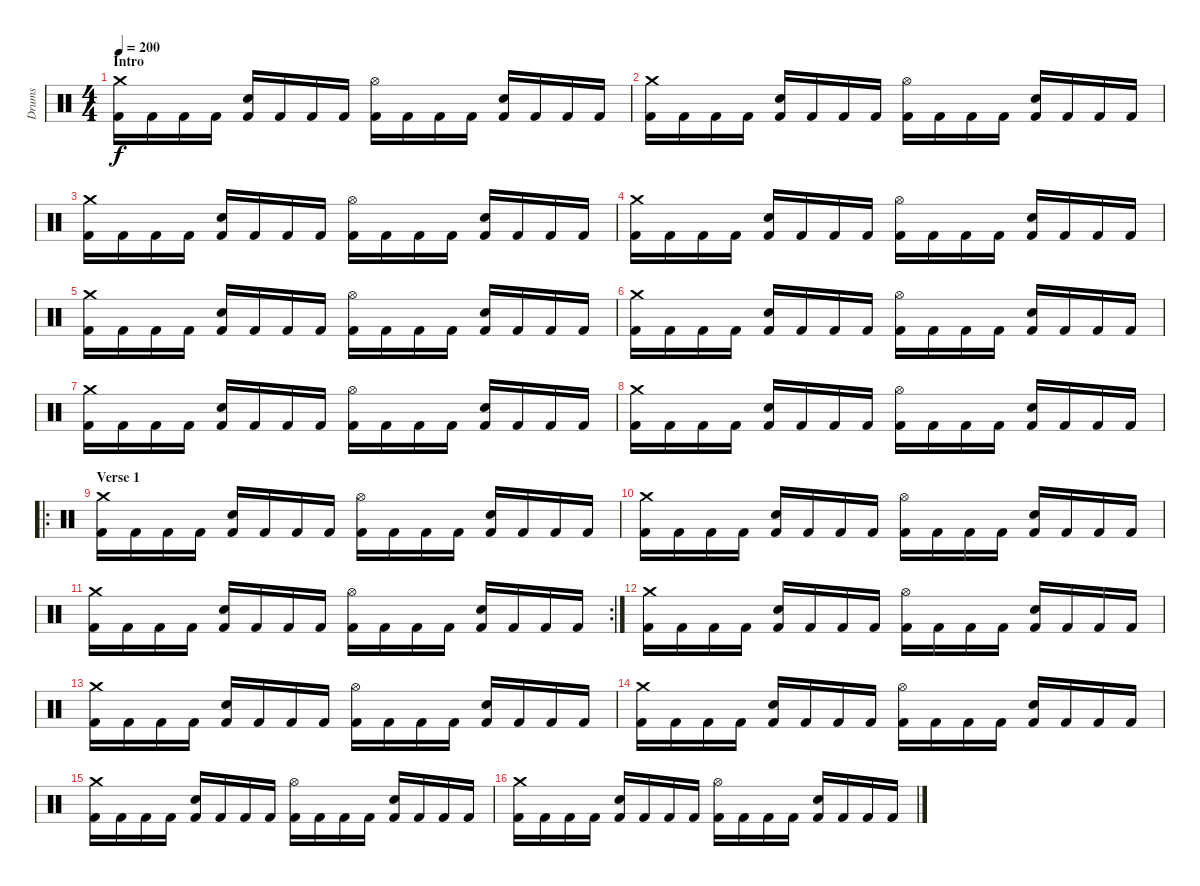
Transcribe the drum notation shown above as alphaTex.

\track ("Drums" "Drums") {instrument percussion}
\staff {score}
\articulation defaults
\ts (4 4)
\section ("" "Intro")
\tempo 200
\clef neutral
\ks c
("Kick (hit) 2" "Crash medium (hit)").16{dy f} "Kick (hit) 2".16 "Kick (hit) 2".16 "Kick (hit) 2".16 ("Kick (hit) 2" "Snare (hit) 2").16 "Kick (hit) 2".16 "Kick (hit) 2".16 "Kick (hit) 2".16 ("Kick (hit) 2" "Hi-Hat (open)").16 "Kick (hit) 2".16 "Kick (hit) 2".16 "Kick (hit) 2".16 ("Kick (hit) 2" "Snare (hit) 2").16 "Kick (hit) 2".16 "Kick (hit) 2".16 "Kick (hit) 2".16 |
("Kick (hit) 2" "Crash medium (hit)").16 "Kick (hit) 2".16 "Kick (hit) 2".16 "Kick (hit) 2".16 ("Kick (hit) 2" "Snare (hit) 2").16 "Kick (hit) 2".16 "Kick (hit) 2".16 "Kick (hit) 2".16 ("Kick (hit) 2" "Hi-Hat (open)").16 "Kick (hit) 2".16 "Kick (hit) 2".16 "Kick (hit) 2".16 ("Kick (hit) 2" "Snare (hit) 2").16 "Kick (hit) 2".16 "Kick (hit) 2".16 "Kick (hit) 2".16 |
("Kick (hit) 2" "Crash medium (hit)").16 "Kick (hit) 2".16 "Kick (hit) 2".16 "Kick (hit) 2".16 ("Kick (hit) 2" "Snare (hit) 2").16 "Kick (hit) 2".16 "Kick (hit) 2".16 "Kick (hit) 2".16 ("Kick (hit) 2" "Hi-Hat (open)").16 "Kick (hit) 2".16 "Kick (hit) 2".16 "Kick (hit) 2".16 ("Kick (hit) 2" "Snare (hit) 2").16 "Kick (hit) 2".16 "Kick (hit) 2".16 "Kick (hit) 2".16 |
("Kick (hit) 2" "Crash medium (hit)").16 "Kick (hit) 2".16 "Kick (hit) 2".16 "Kick (hit) 2".16 ("Kick (hit) 2" "Snare (hit) 2").16 "Kick (hit) 2".16 "Kick (hit) 2".16 "Kick (hit) 2".16 ("Kick (hit) 2" "Hi-Hat (open)").16 "Kick (hit) 2".16 "Kick (hit) 2".16 "Kick (hit) 2".16 ("Kick (hit) 2" "Snare (hit) 2").16 "Kick (hit) 2".16 "Kick (hit) 2".16 "Kick (hit) 2".16 |
("Kick (hit) 2" "Crash medium (hit)").16 "Kick (hit) 2".16 "Kick (hit) 2".16 "Kick (hit) 2".16 ("Kick (hit) 2" "Snare (hit) 2").16 "Kick (hit) 2".16 "Kick (hit) 2".16 "Kick (hit) 2".16 ("Kick (hit) 2" "Hi-Hat (open)").16 "Kick (hit) 2".16 "Kick (hit) 2".16 "Kick (hit) 2".16 ("Kick (hit) 2" "Snare (hit) 2").16 "Kick (hit) 2".16 "Kick (hit) 2".16 "Kick (hit) 2".16 |
("Kick (hit) 2" "Crash medium (hit)").16 "Kick (hit) 2".16 "Kick (hit) 2".16 "Kick (hit) 2".16 ("Kick (hit) 2" "Snare (hit) 2").16 "Kick (hit) 2".16 "Kick (hit) 2".16 "Kick (hit) 2".16 ("Kick (hit) 2" "Hi-Hat (open)").16 "Kick (hit) 2".16 "Kick (hit) 2".16 "Kick (hit) 2".16 ("Kick (hit) 2" "Snare (hit) 2").16 "Kick (hit) 2".16 "Kick (hit) 2".16 "Kick (hit) 2".16 |
("Kick (hit) 2" "Crash medium (hit)").16 "Kick (hit) 2".16 "Kick (hit) 2".16 "Kick (hit) 2".16 ("Kick (hit) 2" "Snare (hit) 2").16 "Kick (hit) 2".16 "Kick (hit) 2".16 "Kick (hit) 2".16 ("Kick (hit) 2" "Hi-Hat (open)").16 "Kick (hit) 2".16 "Kick (hit) 2".16 "Kick (hit) 2".16 ("Kick (hit) 2" "Snare (hit) 2").16 "Kick (hit) 2".16 "Kick (hit) 2".16 "Kick (hit) 2".16 |
("Kick (hit) 2" "Crash medium (hit)").16 "Kick (hit) 2".16 "Kick (hit) 2".16 "Kick (hit) 2".16 ("Kick (hit) 2" "Snare (hit) 2").16 "Kick (hit) 2".16 "Kick (hit) 2".16 "Kick (hit) 2".16 ("Kick (hit) 2" "Hi-Hat (open)").16 "Kick (hit) 2".16 "Kick (hit) 2".16 "Kick (hit) 2".16 ("Kick (hit) 2" "Snare (hit) 2").16 "Kick (hit) 2".16 "Kick (hit) 2".16 "Kick (hit) 2".16 |
\ro
\section ("" "Verse 1")
("Kick (hit) 2" "Crash medium (hit)").16 "Kick (hit) 2".16 "Kick (hit) 2".16 "Kick (hit) 2".16 ("Kick (hit) 2" "Snare (hit) 2").16 "Kick (hit) 2".16 "Kick (hit) 2".16 "Kick (hit) 2".16 ("Kick (hit) 2" "Hi-Hat (open)").16 "Kick (hit) 2".16 "Kick (hit) 2".16 "Kick (hit) 2".16 ("Kick (hit) 2" "Snare (hit) 2").16 "Kick (hit) 2".16 "Kick (hit) 2".16 "Kick (hit) 2".16 |
("Kick (hit) 2" "Crash medium (hit)").16 "Kick (hit) 2".16 "Kick (hit) 2".16 "Kick (hit) 2".16 ("Kick (hit) 2" "Snare (hit) 2").16 "Kick (hit) 2".16 "Kick (hit) 2".16 "Kick (hit) 2".16 ("Kick (hit) 2" "Hi-Hat (open)").16 "Kick (hit) 2".16 "Kick (hit) 2".16 "Kick (hit) 2".16 ("Kick (hit) 2" "Snare (hit) 2").16 "Kick (hit) 2".16 "Kick (hit) 2".16 "Kick (hit) 2".16 |
\rc 2
("Kick (hit) 2" "Crash medium (hit)").16 "Kick (hit) 2".16 "Kick (hit) 2".16 "Kick (hit) 2".16 ("Kick (hit) 2" "Snare (hit) 2").16 "Kick (hit) 2".16 "Kick (hit) 2".16 "Kick (hit) 2".16 ("Kick (hit) 2" "Hi-Hat (open)").16 "Kick (hit) 2".16 "Kick (hit) 2".16 "Kick (hit) 2".16 ("Kick (hit) 2" "Snare (hit) 2").16 "Kick (hit) 2".16 "Kick (hit) 2".16 "Kick (hit) 2".16 |
("Kick (hit) 2" "Crash medium (hit)").16 "Kick (hit) 2".16 "Kick (hit) 2".16 "Kick (hit) 2".16 ("Kick (hit) 2" "Snare (hit) 2").16 "Kick (hit) 2".16 "Kick (hit) 2".16 "Kick (hit) 2".16 ("Kick (hit) 2" "Hi-Hat (open)").16 "Kick (hit) 2".16 "Kick (hit) 2".16 "Kick (hit) 2".16 ("Kick (hit) 2" "Snare (hit) 2").16 "Kick (hit) 2".16 "Kick (hit) 2".16 "Kick (hit) 2".16 |
("Kick (hit) 2" "Crash medium (hit)").16 "Kick (hit) 2".16 "Kick (hit) 2".16 "Kick (hit) 2".16 ("Kick (hit) 2" "Snare (hit) 2").16 "Kick (hit) 2".16 "Kick (hit) 2".16 "Kick (hit) 2".16 ("Kick (hit) 2" "Hi-Hat (open)").16 "Kick (hit) 2".16 "Kick (hit) 2".16 "Kick (hit) 2".16 ("Kick (hit) 2" "Snare (hit) 2").16 "Kick (hit) 2".16 "Kick (hit) 2".16 "Kick (hit) 2".16 |
("Kick (hit) 2" "Crash medium (hit)").16 "Kick (hit) 2".16 "Kick (hit) 2".16 "Kick (hit) 2".16 ("Kick (hit) 2" "Snare (hit) 2").16 "Kick (hit) 2".16 "Kick (hit) 2".16 "Kick (hit) 2".16 ("Kick (hit) 2" "Hi-Hat (open)").16 "Kick (hit) 2".16 "Kick (hit) 2".16 "Kick (hit) 2".16 ("Kick (hit) 2" "Snare (hit) 2").16 "Kick (hit) 2".16 "Kick (hit) 2".16 "Kick (hit) 2".16 |
("Kick (hit) 2" "Crash medium (hit)").16 "Kick (hit) 2".16 "Kick (hit) 2".16 "Kick (hit) 2".16 ("Kick (hit) 2" "Snare (hit) 2").16 "Kick (hit) 2".16 "Kick (hit) 2".16 "Kick (hit) 2".16 ("Kick (hit) 2" "Hi-Hat (open)").16 "Kick (hit) 2".16 "Kick (hit) 2".16 "Kick (hit) 2".16 ("Kick (hit) 2" "Snare (hit) 2").16 "Kick (hit) 2".16 "Kick (hit) 2".16 "Kick (hit) 2".16 |
("Kick (hit) 2" "Crash medium (hit)").16 "Kick (hit) 2".16 "Kick (hit) 2".16 "Kick (hit) 2".16 ("Kick (hit) 2" "Snare (hit) 2").16 "Kick (hit) 2".16 "Kick (hit) 2".16 "Kick (hit) 2".16 ("Kick (hit) 2" "Hi-Hat (open)").16 "Kick (hit) 2".16 "Kick (hit) 2".16 "Kick (hit) 2".16 ("Kick (hit) 2" "Snare (hit) 2").16 "Kick (hit) 2".16 "Kick (hit) 2".16 "Kick (hit) 2".16
